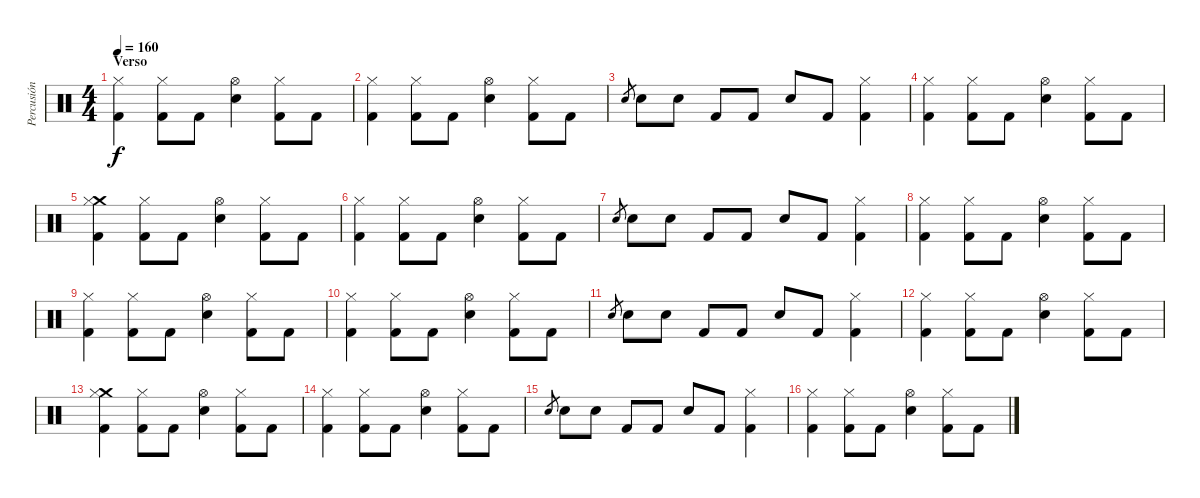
\track ("Percusión" "Percusión") {instrument percussion}
\staff {score}
\articulation defaults
\ts (4 4)
\section ("" "Verso")
\tempo 160
\clef neutral
\ks c
("Hi-Hat (closed)" "Kick (hit) 2").4{dy f} ("Hi-Hat (closed)" "Kick (hit) 2").8 "Kick (hit) 2".8 ("Hi-Hat (open)" "Snare (hit) 2").4 ("Hi-Hat (closed)" "Kick (hit) 2").8 "Kick (hit) 2".8 |
("Hi-Hat (closed)" "Kick (hit) 2").4 ("Hi-Hat (closed)" "Kick (hit) 2").8 "Kick (hit) 2".8 ("Hi-Hat (open)" "Snare (hit) 2").4 ("Hi-Hat (closed)" "Kick (hit) 2").8 "Kick (hit) 2".8 |
"Snare (hit) 2".8{gr} "Snare (hit) 2".8 "Snare (hit) 2".8 "Kick (hit) 2".8 "Kick (hit) 2".8 "Snare (hit) 2".8 "Kick (hit) 2".8 ("Hi-Hat (closed)" "Kick (hit) 2").4 |
("Hi-Hat (closed)" "Kick (hit) 2").4 ("Hi-Hat (closed)" "Kick (hit) 2").8 "Kick (hit) 2".8 ("Hi-Hat (open)" "Snare (hit) 2").4 ("Hi-Hat (closed)" "Kick (hit) 2").8 "Kick (hit) 2".8 |
("Crash medium (hit)" "Hi-Hat (closed)" "Kick (hit) 2").4 ("Hi-Hat (closed)" "Kick (hit) 2").8 "Kick (hit) 2".8 ("Hi-Hat (open)" "Snare (hit) 2").4 ("Hi-Hat (closed)" "Kick (hit) 2").8 "Kick (hit) 2".8 |
("Hi-Hat (closed)" "Kick (hit) 2").4 ("Hi-Hat (closed)" "Kick (hit) 2").8 "Kick (hit) 2".8 ("Hi-Hat (open)" "Snare (hit) 2").4 ("Hi-Hat (closed)" "Kick (hit) 2").8 "Kick (hit) 2".8 |
"Snare (hit) 2".8{gr} "Snare (hit) 2".8 "Snare (hit) 2".8 "Kick (hit) 2".8 "Kick (hit) 2".8 "Snare (hit) 2".8 "Kick (hit) 2".8 ("Hi-Hat (closed)" "Kick (hit) 2").4 |
("Hi-Hat (closed)" "Kick (hit) 2").4 ("Hi-Hat (closed)" "Kick (hit) 2").8 "Kick (hit) 2".8 ("Hi-Hat (open)" "Snare (hit) 2").4 ("Hi-Hat (closed)" "Kick (hit) 2").8 "Kick (hit) 2".8 |
("Hi-Hat (closed)" "Kick (hit) 2").4 ("Hi-Hat (closed)" "Kick (hit) 2").8 "Kick (hit) 2".8 ("Hi-Hat (open)" "Snare (hit) 2").4 ("Hi-Hat (closed)" "Kick (hit) 2").8 "Kick (hit) 2".8 |
("Hi-Hat (closed)" "Kick (hit) 2").4 ("Hi-Hat (closed)" "Kick (hit) 2").8 "Kick (hit) 2".8 ("Hi-Hat (open)" "Snare (hit) 2").4 ("Hi-Hat (closed)" "Kick (hit) 2").8 "Kick (hit) 2".8 |
"Snare (hit) 2".8{gr} "Snare (hit) 2".8 "Snare (hit) 2".8 "Kick (hit) 2".8 "Kick (hit) 2".8 "Snare (hit) 2".8 "Kick (hit) 2".8 ("Hi-Hat (closed)" "Kick (hit) 2").4 |
("Hi-Hat (closed)" "Kick (hit) 2").4 ("Hi-Hat (closed)" "Kick (hit) 2").8 "Kick (hit) 2".8 ("Hi-Hat (open)" "Snare (hit) 2").4 ("Hi-Hat (closed)" "Kick (hit) 2").8 "Kick (hit) 2".8 |
("Crash medium (hit)" "Hi-Hat (closed)" "Kick (hit) 2").4 ("Hi-Hat (closed)" "Kick (hit) 2").8 "Kick (hit) 2".8 ("Hi-Hat (open)" "Snare (hit) 2").4 ("Hi-Hat (closed)" "Kick (hit) 2").8 "Kick (hit) 2".8 |
("Hi-Hat (closed)" "Kick (hit) 2").4 ("Hi-Hat (closed)" "Kick (hit) 2").8 "Kick (hit) 2".8 ("Hi-Hat (open)" "Snare (hit) 2").4 ("Hi-Hat (closed)" "Kick (hit) 2").8 "Kick (hit) 2".8 |
"Snare (hit) 2".8{gr} "Snare (hit) 2".8 "Snare (hit) 2".8 "Kick (hit) 2".8 "Kick (hit) 2".8 "Snare (hit) 2".8 "Kick (hit) 2".8 ("Hi-Hat (closed)" "Kick (hit) 2").4 |
("Hi-Hat (closed)" "Kick (hit) 2").4 ("Hi-Hat (closed)" "Kick (hit) 2").8 "Kick (hit) 2".8 ("Hi-Hat (open)" "Snare (hit) 2").4 ("Hi-Hat (closed)" "Kick (hit) 2").8 "Kick (hit) 2".8
